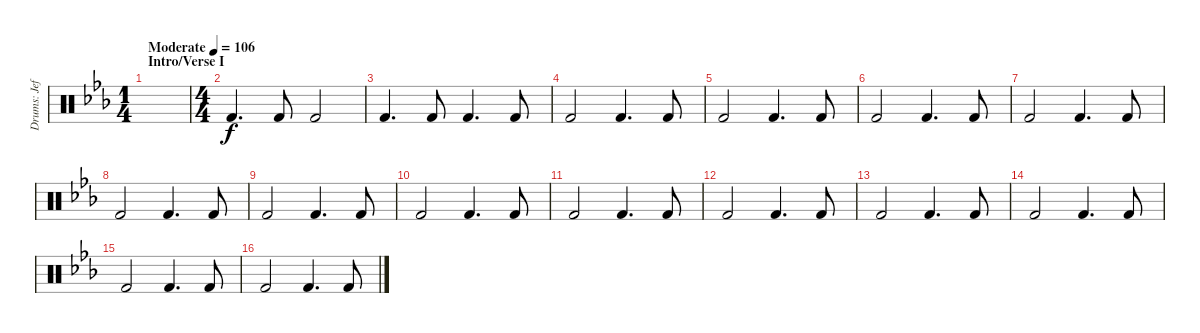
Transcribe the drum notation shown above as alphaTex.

\track ("Drums: Jeff" "Drums: Jef") {instrument percussion}
\staff {score}
\articulation defaults
\ts (1 4)
\section ("" "Intro/Verse I")
\tempo (106 "Moderate")
\clef neutral
\ks eb
|
\ts (4 4)
"Kick (hit) 2".4{d} "Kick (hit) 2".8 "Kick (hit) 2".2 |
"Kick (hit) 2".4{d} "Kick (hit) 2".8 "Kick (hit) 2".4{d} "Kick (hit) 2".8 |
"Kick (hit) 2".2 "Kick (hit) 2".4{d} "Kick (hit) 2".8 |
"Kick (hit) 2".2 "Kick (hit) 2".4{d} "Kick (hit) 2".8 |
"Kick (hit) 2".2 "Kick (hit) 2".4{d} "Kick (hit) 2".8 |
"Kick (hit) 2".2 "Kick (hit) 2".4{d} "Kick (hit) 2".8 |
"Kick (hit) 2".2 "Kick (hit) 2".4{d} "Kick (hit) 2".8 |
"Kick (hit) 2".2 "Kick (hit) 2".4{d} "Kick (hit) 2".8 |
"Kick (hit) 2".2 "Kick (hit) 2".4{d} "Kick (hit) 2".8 |
"Kick (hit) 2".2 "Kick (hit) 2".4{d} "Kick (hit) 2".8 |
"Kick (hit) 2".2 "Kick (hit) 2".4{d} "Kick (hit) 2".8 |
"Kick (hit) 2".2 "Kick (hit) 2".4{d} "Kick (hit) 2".8 |
"Kick (hit) 2".2 "Kick (hit) 2".4{d} "Kick (hit) 2".8 |
"Kick (hit) 2".2 "Kick (hit) 2".4{d} "Kick (hit) 2".8 |
"Kick (hit) 2".2 "Kick (hit) 2".4{d} "Kick (hit) 2".8
